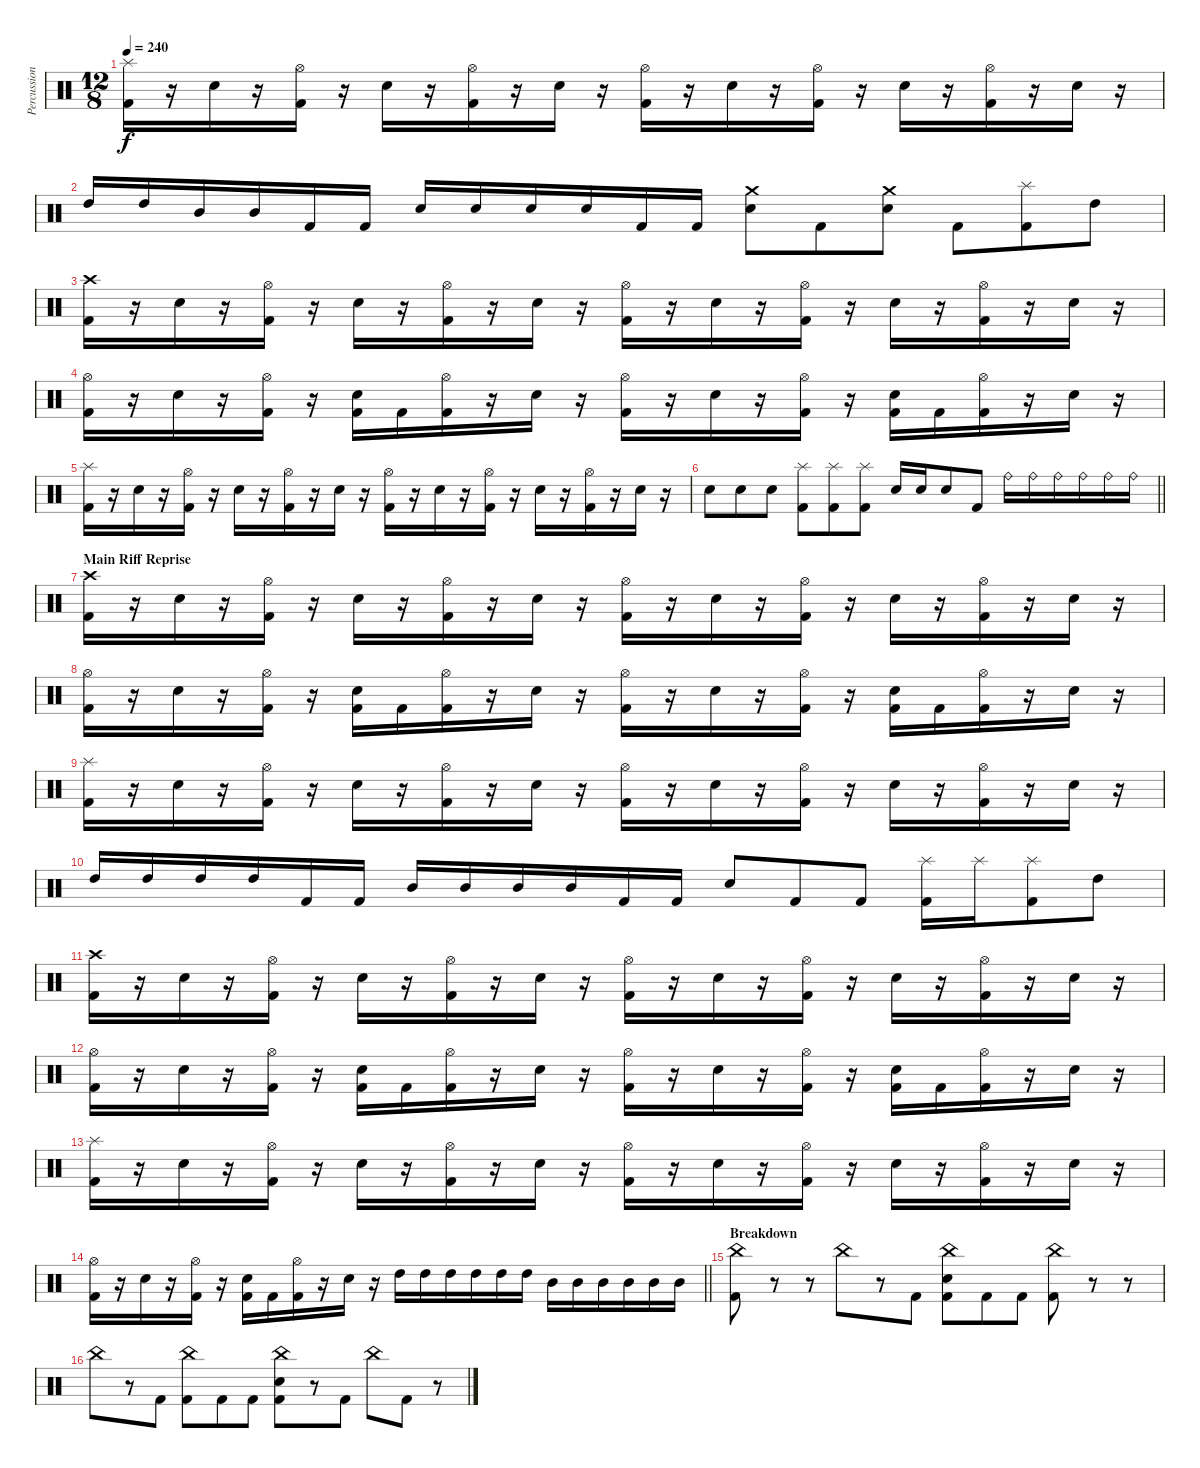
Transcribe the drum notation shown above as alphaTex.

\track ("Percussion" "Percussion") {instrument percussion}
\staff {score}
\articulation defaults
\ts (12 8)
\tempo 240
\clef neutral
\ks c
("Splash (hit)" "Kick (hit) 2").16{dy f} r.16 "Electric Snare (hit)".16 r.16 ("Hi-Hat (open)" "Kick (hit) 2").16 r.16 "Electric Snare (hit)".16 r.16 ("Hi-Hat (open)" "Kick (hit) 2").16 r.16 "Electric Snare (hit)".16 r.16 ("Hi-Hat (open)" "Kick (hit) 2").16 r.16 "Electric Snare (hit)".16 r.16 ("Hi-Hat (open)" "Kick (hit) 2").16 r.16 "Electric Snare (hit)".16 r.16 ("Hi-Hat (open)" "Kick (hit) 2").16 r.16 "Electric Snare (hit)".16 r.16 |
"High Tom (hit)".16 "High Tom (hit)".16 "Mid Tom (hit)".16 "Mid Tom (hit)".16 "Kick (hit) 2".16 "Kick (hit) 2".16 "Electric Snare (hit)".16 "Electric Snare (hit)".16 "Electric Snare (hit)".16 "Electric Snare (hit)".16 "Kick (hit) 2".16 "Kick (hit) 2".16 ("Crash medium (hit)" "Electric Snare (hit)").8 "Kick (hit) 2".8 ("Crash medium (hit)" "Electric Snare (hit)").8 "Kick (hit) 2".8 ("Splash (hit)" "Kick (hit) 2").8 "High Tom (hit)".8 |
("Crash high (hit)" "Kick (hit) 2").16 r.16 "Electric Snare (hit)".16 r.16 ("Hi-Hat (open)" "Kick (hit) 2").16 r.16 "Electric Snare (hit)".16 r.16 ("Hi-Hat (open)" "Kick (hit) 2").16 r.16 "Electric Snare (hit)".16 r.16 ("Hi-Hat (open)" "Kick (hit) 2").16 r.16 "Electric Snare (hit)".16 r.16 ("Hi-Hat (open)" "Kick (hit) 2").16 r.16 "Electric Snare (hit)".16 r.16 ("Hi-Hat (open)" "Kick (hit) 2").16 r.16 "Electric Snare (hit)".16 r.16 |
("Hi-Hat (open)" "Kick (hit) 2").16 r.16 "Electric Snare (hit)".16 r.16 ("Hi-Hat (open)" "Kick (hit) 2").16 r.16 ("Electric Snare (hit)" "Kick (hit) 2").16 "Kick (hit) 2".16 ("Hi-Hat (open)" "Kick (hit) 2").16 r.16 "Electric Snare (hit)".16 r.16 ("Hi-Hat (open)" "Kick (hit) 2").16 r.16 "Electric Snare (hit)".16 r.16 ("Hi-Hat (open)" "Kick (hit) 2").16 r.16 ("Electric Snare (hit)" "Kick (hit) 2").16 "Kick (hit) 2".16 ("Hi-Hat (open)" "Kick (hit) 2").16 r.16 "Electric Snare (hit)".16 r.16 |
("Splash (hit)" "Kick (hit) 2").16 r.16 "Electric Snare (hit)".16 r.16 ("Hi-Hat (open)" "Kick (hit) 2").16 r.16 "Electric Snare (hit)".16 r.16 ("Hi-Hat (open)" "Kick (hit) 2").16 r.16 "Electric Snare (hit)".16 r.16 ("Hi-Hat (open)" "Kick (hit) 2").16 r.16 "Electric Snare (hit)".16 r.16 ("Hi-Hat (open)" "Kick (hit) 2").16 r.16 "Electric Snare (hit)".16 r.16 ("Hi-Hat (open)" "Kick (hit) 2").16 r.16 "Electric Snare (hit)".16 r.16 |
\barLineRight lightlight "Electric Snare (hit)".8 "Electric Snare (hit)".8 "Electric Snare (hit)".8
("Splash (hit)" "Kick (hit) 2").8 ("Splash (hit)" "Kick (hit) 2").8 ("Splash (hit)" "Kick (hit) 2").8 "Electric Snare (hit)".16 "Electric Snare (hit)".16 "Electric Snare (hit)".8 "Kick (hit) 2".8 "Ride (bell)".16 "Ride (bell)".16 "Ride (bell)".16 "Ride (bell)".16 "Ride (bell)".16 "Ride (bell)".16 |
\section ("" "Main Riff Reprise")
("Crash high (hit)" "Kick (hit) 2").16 r.16 "Electric Snare (hit)".16 r.16 ("Hi-Hat (open)" "Kick (hit) 2").16 r.16 "Electric Snare (hit)".16 r.16 ("Hi-Hat (open)" "Kick (hit) 2").16 r.16 "Electric Snare (hit)".16 r.16 ("Hi-Hat (open)" "Kick (hit) 2").16 r.16 "Electric Snare (hit)".16 r.16 ("Hi-Hat (open)" "Kick (hit) 2").16 r.16 "Electric Snare (hit)".16 r.16 ("Hi-Hat (open)" "Kick (hit) 2").16 r.16 "Electric Snare (hit)".16 r.16 |
("Hi-Hat (open)" "Kick (hit) 2").16 r.16 "Electric Snare (hit)".16 r.16 ("Hi-Hat (open)" "Kick (hit) 2").16 r.16 ("Electric Snare (hit)" "Kick (hit) 2").16 "Kick (hit) 2".16 ("Hi-Hat (open)" "Kick (hit) 2").16 r.16 "Electric Snare (hit)".16 r.16 ("Hi-Hat (open)" "Kick (hit) 2").16 r.16 "Electric Snare (hit)".16 r.16 ("Hi-Hat (open)" "Kick (hit) 2").16 r.16 ("Electric Snare (hit)" "Kick (hit) 2").16 "Kick (hit) 2".16 ("Hi-Hat (open)" "Kick (hit) 2").16 r.16 "Electric Snare (hit)".16 r.16 |
("Splash (hit)" "Kick (hit) 2").16 r.16 "Electric Snare (hit)".16 r.16 ("Hi-Hat (open)" "Kick (hit) 2").16 r.16 "Electric Snare (hit)".16 r.16 ("Hi-Hat (open)" "Kick (hit) 2").16 r.16 "Electric Snare (hit)".16 r.16 ("Hi-Hat (open)" "Kick (hit) 2").16 r.16 "Electric Snare (hit)".16 r.16 ("Hi-Hat (open)" "Kick (hit) 2").16 r.16 "Electric Snare (hit)".16 r.16 ("Hi-Hat (open)" "Kick (hit) 2").16 r.16 "Electric Snare (hit)".16 r.16 |
"High Tom (hit)".16 "High Tom (hit)".16 "High Tom (hit)".16 "High Tom (hit)".16 "Kick (hit) 2".16 "Kick (hit) 2".16 "Mid Tom (hit)".16 "Mid Tom (hit)".16 "Mid Tom (hit)".16 "Mid Tom (hit)".16 "Kick (hit) 2".16 "Kick (hit) 2".16 "Electric Snare (hit)".8 "Kick (hit) 2".8 "Kick (hit) 2".8 ("Splash (hit)" "Kick (hit) 2").16 "Splash (hit)".16 ("Splash (hit)" "Kick (hit) 2").8 "High Tom (hit)".8 |
("Crash high (hit)" "Kick (hit) 2").16 r.16 "Electric Snare (hit)".16 r.16 ("Hi-Hat (open)" "Kick (hit) 2").16 r.16 "Electric Snare (hit)".16 r.16 ("Hi-Hat (open)" "Kick (hit) 2").16 r.16 "Electric Snare (hit)".16 r.16 ("Hi-Hat (open)" "Kick (hit) 2").16 r.16 "Electric Snare (hit)".16 r.16 ("Hi-Hat (open)" "Kick (hit) 2").16 r.16 "Electric Snare (hit)".16 r.16 ("Hi-Hat (open)" "Kick (hit) 2").16 r.16 "Electric Snare (hit)".16 r.16 |
("Hi-Hat (open)" "Kick (hit) 2").16 r.16 "Electric Snare (hit)".16 r.16 ("Hi-Hat (open)" "Kick (hit) 2").16 r.16 ("Electric Snare (hit)" "Kick (hit) 2").16 "Kick (hit) 2".16 ("Hi-Hat (open)" "Kick (hit) 2").16 r.16 "Electric Snare (hit)".16 r.16 ("Hi-Hat (open)" "Kick (hit) 2").16 r.16 "Electric Snare (hit)".16 r.16 ("Hi-Hat (open)" "Kick (hit) 2").16 r.16 ("Electric Snare (hit)" "Kick (hit) 2").16 "Kick (hit) 2".16 ("Hi-Hat (open)" "Kick (hit) 2").16 r.16 "Electric Snare (hit)".16 r.16 |
("Splash (hit)" "Kick (hit) 2").16 r.16 "Electric Snare (hit)".16 r.16 ("Hi-Hat (open)" "Kick (hit) 2").16 r.16 "Electric Snare (hit)".16 r.16 ("Hi-Hat (open)" "Kick (hit) 2").16 r.16 "Electric Snare (hit)".16 r.16 ("Hi-Hat (open)" "Kick (hit) 2").16 r.16 "Electric Snare (hit)".16 r.16 ("Hi-Hat (open)" "Kick (hit) 2").16 r.16 "Electric Snare (hit)".16 r.16 ("Hi-Hat (open)" "Kick (hit) 2").16 r.16 "Electric Snare (hit)".16 r.16 |
\barLineRight lightlight
("Hi-Hat (open)" "Kick (hit) 2").16 r.16 "Electric Snare (hit)".16 r.16 ("Hi-Hat (open)" "Kick (hit) 2").16 r.16 ("Electric Snare (hit)" "Kick (hit) 2").16 "Kick (hit) 2".16 ("Hi-Hat (open)" "Kick (hit) 2").16 r.16 "Electric Snare (hit)".16 r.16 "High Tom (hit)".16 "High Tom (hit)".16 "High Tom (hit)".16 "High Tom (hit)".16 "High Tom (hit)".16 "High Tom (hit)".16 "Mid Tom (hit)".16 "Mid Tom (hit)".16 "Mid Tom (hit)".16 "Mid Tom (hit)".16 "Mid Tom (hit)".16 "Mid Tom (hit)".16 |
\section ("" "Breakdown")
("China (hit)" "Kick (hit) 2").8 r.8 r.8 "China (hit)".8 r.8 "Kick (hit) 2".8 ("China (hit)" "Electric Snare (hit)" "Kick (hit) 2").8 "Kick (hit) 2".8 "Kick (hit) 2".8 ("China (hit)" "Kick (hit) 2").8 r.8 r.8 |
"China (hit)".8 r.8 "Kick (hit) 2".8 ("China (hit)" "Kick (hit) 2").8 "Kick (hit) 2".8 "Kick (hit) 2".8 ("China (hit)" "Electric Snare (hit)" "Kick (hit) 2").8 r.8 "Kick (hit) 2".8 "China (hit)".8 "Kick (hit) 2".8 r.8
